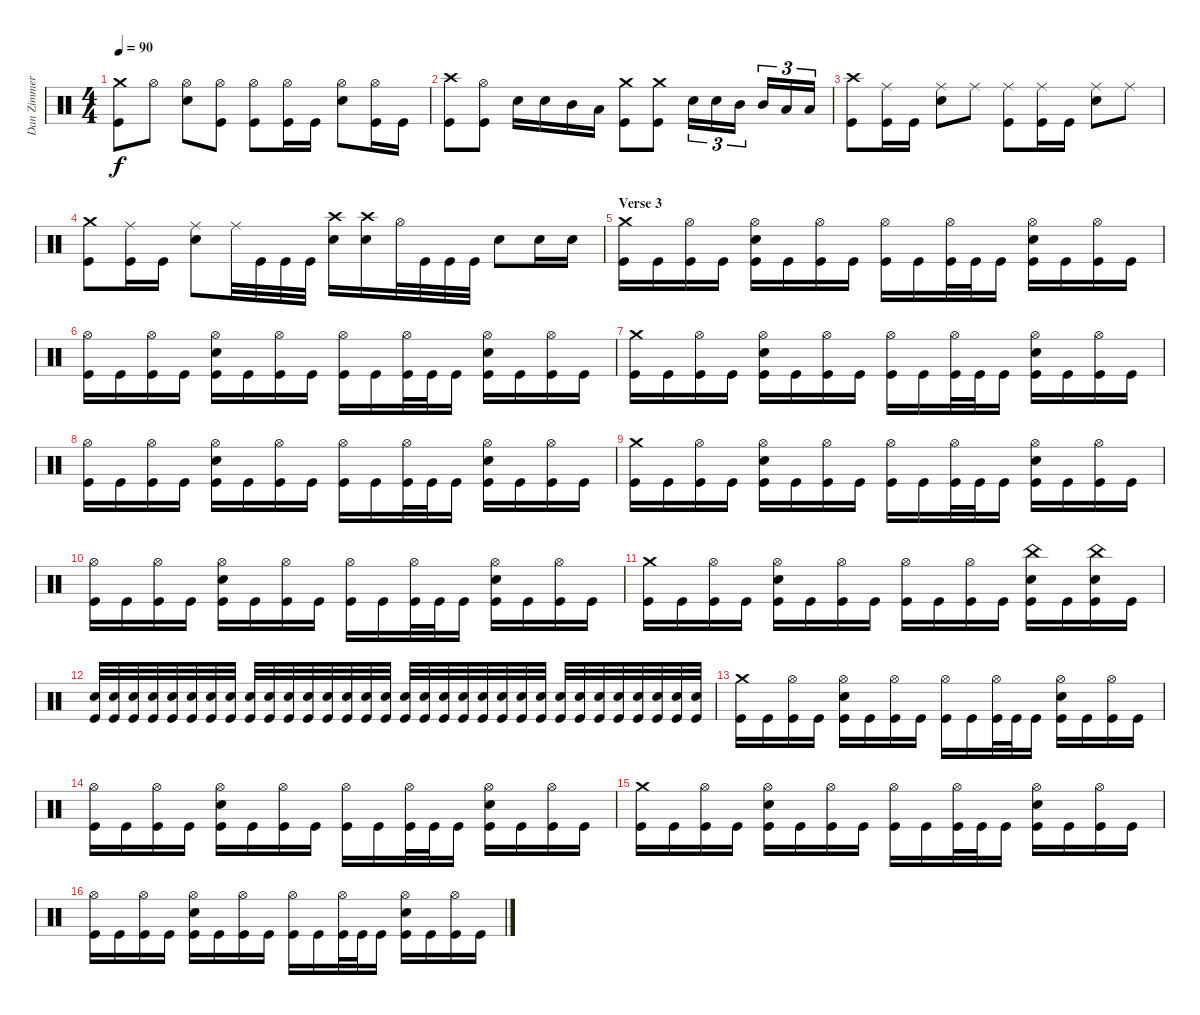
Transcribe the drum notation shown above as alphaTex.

\track ("Dan Zimmerman" "Dan Zimmer") {instrument percussion}
\staff {score}
\articulation defaults
\ts (4 4)
\tempo 90
\clef neutral
\ks c
("Crash medium (hit)" "Kick (hit)").8{dy f} "Hi-Hat (open)".8 ("Hi-Hat (open)" "Snare (hit) 2").8 ("Hi-Hat (open)" "Kick (hit)").8 ("Hi-Hat (open)" "Kick (hit)").8 ("Hi-Hat (open)" "Kick (hit)").16 "Kick (hit)".16 ("Hi-Hat (open)" "Snare (hit) 2").8 ("Hi-Hat (open)" "Kick (hit)").16 "Kick (hit)".16 |
("Crash high (hit)" "Kick (hit)").8 ("Hi-Hat (open)" "Kick (hit)").8 "Snare (hit) 2".16 "Snare (hit) 2".16 "Mid Tom (hit)".16 "Low Tom (hit)".16 ("Crash medium (hit)" "Kick (hit)").8 ("Crash medium (hit)" "Kick (hit)").8 "Snare (hit) 2".16{tu (3 2)} "Snare (hit) 2".16{tu (3 2)} "Mid Tom (hit)".16{tu (3 2)} "Mid Tom (hit)".16{tu (3 2)} "Low Tom (hit)".16{tu (3 2)} "Low Tom (hit)".16{tu (3 2)} |
("Crash high (hit)" "Kick (hit)").8 ("Ride (middle)" "Kick (hit)").16 "Kick (hit)".16 ("Ride (middle)" "Snare (hit) 2").8 "Ride (middle)".8 ("Ride (middle)" "Kick (hit)").8 ("Ride (middle)" "Kick (hit)").16 "Kick (hit)".16 ("Ride (middle)" "Snare (hit) 2").8 "Ride (middle)".8 |
("Crash medium (hit)" "Kick (hit)").8 ("Ride (middle)" "Kick (hit)").16 "Kick (hit)".16 ("Ride (middle)" "Snare (hit) 2").8 "Ride (middle)".32 "Kick (hit)".32 "Kick (hit)".32 "Kick (hit)".32 ("Crash high (hit)" "Snare (hit) 2").16 ("Crash high (hit)" "Snare (hit) 2").16 "Hi-Hat (open)".32 "Kick (hit)".32 "Kick (hit)".32 "Kick (hit)".32 "Snare (hit) 2".8 "Snare (hit) 2".16 "Snare (hit) 2".16 |
\section ("" "Verse 3")
("Crash medium (hit)" "Kick (hit)").16 "Kick (hit)".16 ("Hi-Hat (open)" "Kick (hit)").16 "Kick (hit)".16 ("Hi-Hat (open)" "Snare (hit) 2" "Kick (hit)").16 "Kick (hit)".16 ("Hi-Hat (open)" "Kick (hit)").16 "Kick (hit)".16 ("Hi-Hat (open)" "Kick (hit)").16 "Kick (hit)".16 ("Hi-Hat (open)" "Kick (hit)").32 "Kick (hit)".32 "Kick (hit)".16 ("Hi-Hat (open)" "Snare (hit) 2" "Kick (hit)").16 "Kick (hit)".16 ("Hi-Hat (open)" "Kick (hit)").16 "Kick (hit)".16 |
("Hi-Hat (open)" "Kick (hit)").16 "Kick (hit)".16 ("Hi-Hat (open)" "Kick (hit)").16 "Kick (hit)".16 ("Hi-Hat (open)" "Snare (hit) 2" "Kick (hit)").16 "Kick (hit)".16 ("Hi-Hat (open)" "Kick (hit)").16 "Kick (hit)".16 ("Hi-Hat (open)" "Kick (hit)").16 "Kick (hit)".16 ("Hi-Hat (open)" "Kick (hit)").32 "Kick (hit)".32 "Kick (hit)".16 ("Hi-Hat (open)" "Snare (hit) 2" "Kick (hit)").16 "Kick (hit)".16 ("Hi-Hat (open)" "Kick (hit)").16 "Kick (hit)".16 |
("Crash medium (hit)" "Kick (hit)").16 "Kick (hit)".16 ("Hi-Hat (open)" "Kick (hit)").16 "Kick (hit)".16 ("Hi-Hat (open)" "Snare (hit) 2" "Kick (hit)").16 "Kick (hit)".16 ("Hi-Hat (open)" "Kick (hit)").16 "Kick (hit)".16 ("Hi-Hat (open)" "Kick (hit)").16 "Kick (hit)".16 ("Hi-Hat (open)" "Kick (hit)").32 "Kick (hit)".32 "Kick (hit)".16 ("Hi-Hat (open)" "Snare (hit) 2" "Kick (hit)").16 "Kick (hit)".16 ("Hi-Hat (open)" "Kick (hit)").16 "Kick (hit)".16 |
("Hi-Hat (open)" "Kick (hit)").16 "Kick (hit)".16 ("Hi-Hat (open)" "Kick (hit)").16 "Kick (hit)".16 ("Hi-Hat (open)" "Snare (hit) 2" "Kick (hit)").16 "Kick (hit)".16 ("Hi-Hat (open)" "Kick (hit)").16 "Kick (hit)".16 ("Hi-Hat (open)" "Kick (hit)").16 "Kick (hit)".16 ("Hi-Hat (open)" "Kick (hit)").32 "Kick (hit)".32 "Kick (hit)".16 ("Hi-Hat (open)" "Snare (hit) 2" "Kick (hit)").16 "Kick (hit)".16 ("Hi-Hat (open)" "Kick (hit)").16 "Kick (hit)".16 |
("Crash medium (hit)" "Kick (hit)").16 "Kick (hit)".16 ("Hi-Hat (open)" "Kick (hit)").16 "Kick (hit)".16 ("Hi-Hat (open)" "Snare (hit) 2" "Kick (hit)").16 "Kick (hit)".16 ("Hi-Hat (open)" "Kick (hit)").16 "Kick (hit)".16 ("Hi-Hat (open)" "Kick (hit)").16 "Kick (hit)".16 ("Hi-Hat (open)" "Kick (hit)").32 "Kick (hit)".32 "Kick (hit)".16 ("Hi-Hat (open)" "Snare (hit) 2" "Kick (hit)").16 "Kick (hit)".16 ("Hi-Hat (open)" "Kick (hit)").16 "Kick (hit)".16 |
("Hi-Hat (open)" "Kick (hit)").16 "Kick (hit)".16 ("Hi-Hat (open)" "Kick (hit)").16 "Kick (hit)".16 ("Hi-Hat (open)" "Snare (hit) 2" "Kick (hit)").16 "Kick (hit)".16 ("Hi-Hat (open)" "Kick (hit)").16 "Kick (hit)".16 ("Hi-Hat (open)" "Kick (hit)").16 "Kick (hit)".16 ("Hi-Hat (open)" "Kick (hit)").32 "Kick (hit)".32 "Kick (hit)".16 ("Hi-Hat (open)" "Snare (hit) 2" "Kick (hit)").16 "Kick (hit)".16 ("Hi-Hat (open)" "Kick (hit)").16 "Kick (hit)".16 |
("Crash medium (hit)" "Kick (hit)").16 "Kick (hit)".16 ("Hi-Hat (open)" "Kick (hit)").16 "Kick (hit)".16 ("Hi-Hat (open)" "Snare (hit) 2" "Kick (hit)").16 "Kick (hit)".16 ("Hi-Hat (open)" "Kick (hit)").16 "Kick (hit)".16 ("Hi-Hat (open)" "Kick (hit)").16 "Kick (hit)".16 ("Hi-Hat (open)" "Kick (hit)").16 "Kick (hit)".16 ("China (hit)" "Snare (hit) 2" "Kick (hit)").16 "Kick (hit)".16 ("China (hit)" "Snare (hit) 2" "Kick (hit)").16 "Kick (hit)".16 |
("Snare (hit) 2" "Kick (hit)").32 ("Snare (hit) 2" "Kick (hit)").32 ("Snare (hit) 2" "Kick (hit)").32 ("Snare (hit) 2" "Kick (hit)").32 ("Snare (hit) 2" "Kick (hit)").32 ("Snare (hit) 2" "Kick (hit)").32 ("Snare (hit) 2" "Kick (hit)").32 ("Snare (hit) 2" "Kick (hit)").32 ("Snare (hit) 2" "Kick (hit)").32 ("Snare (hit) 2" "Kick (hit)").32 ("Snare (hit) 2" "Kick (hit)").32 ("Snare (hit) 2" "Kick (hit)").32 ("Snare (hit) 2" "Kick (hit)").32 ("Snare (hit) 2" "Kick (hit)").32 ("Snare (hit) 2" "Kick (hit)").32 ("Snare (hit) 2" "Kick (hit)").32 ("Snare (hit) 2" "Kick (hit)").32 ("Snare (hit) 2" "Kick (hit)").32 ("Snare (hit) 2" "Kick (hit)").32 ("Snare (hit) 2" "Kick (hit)").32 ("Snare (hit) 2" "Kick (hit)").32 ("Snare (hit) 2" "Kick (hit)").32 ("Snare (hit) 2" "Kick (hit)").32 ("Snare (hit) 2" "Kick (hit)").32 ("Snare (hit) 2" "Kick (hit)").32 ("Snare (hit) 2" "Kick (hit)").32 ("Snare (hit) 2" "Kick (hit)").32 ("Snare (hit) 2" "Kick (hit)").32 ("Snare (hit) 2" "Kick (hit)").32 ("Snare (hit) 2" "Kick (hit)").32 ("Snare (hit) 2" "Kick (hit)").32 ("Snare (hit) 2" "Kick (hit)").32 |
("Crash medium (hit)" "Kick (hit)").16 "Kick (hit)".16 ("Hi-Hat (open)" "Kick (hit)").16 "Kick (hit)".16 ("Hi-Hat (open)" "Snare (hit) 2" "Kick (hit)").16 "Kick (hit)".16 ("Hi-Hat (open)" "Kick (hit)").16 "Kick (hit)".16 ("Hi-Hat (open)" "Kick (hit)").16 "Kick (hit)".16 ("Hi-Hat (open)" "Kick (hit)").32 "Kick (hit)".32 "Kick (hit)".16 ("Hi-Hat (open)" "Snare (hit) 2" "Kick (hit)").16 "Kick (hit)".16 ("Hi-Hat (open)" "Kick (hit)").16 "Kick (hit)".16 |
("Hi-Hat (open)" "Kick (hit)").16 "Kick (hit)".16 ("Hi-Hat (open)" "Kick (hit)").16 "Kick (hit)".16 ("Hi-Hat (open)" "Snare (hit) 2" "Kick (hit)").16 "Kick (hit)".16 ("Hi-Hat (open)" "Kick (hit)").16 "Kick (hit)".16 ("Hi-Hat (open)" "Kick (hit)").16 "Kick (hit)".16 ("Hi-Hat (open)" "Kick (hit)").32 "Kick (hit)".32 "Kick (hit)".16 ("Hi-Hat (open)" "Snare (hit) 2" "Kick (hit)").16 "Kick (hit)".16 ("Hi-Hat (open)" "Kick (hit)").16 "Kick (hit)".16 |
("Crash medium (hit)" "Kick (hit)").16 "Kick (hit)".16 ("Hi-Hat (open)" "Kick (hit)").16 "Kick (hit)".16 ("Hi-Hat (open)" "Snare (hit) 2" "Kick (hit)").16 "Kick (hit)".16 ("Hi-Hat (open)" "Kick (hit)").16 "Kick (hit)".16 ("Hi-Hat (open)" "Kick (hit)").16 "Kick (hit)".16 ("Hi-Hat (open)" "Kick (hit)").32 "Kick (hit)".32 "Kick (hit)".16 ("Hi-Hat (open)" "Snare (hit) 2" "Kick (hit)").16 "Kick (hit)".16 ("Hi-Hat (open)" "Kick (hit)").16 "Kick (hit)".16 |
("Hi-Hat (open)" "Kick (hit)").16 "Kick (hit)".16 ("Hi-Hat (open)" "Kick (hit)").16 "Kick (hit)".16 ("Hi-Hat (open)" "Snare (hit) 2" "Kick (hit)").16 "Kick (hit)".16 ("Hi-Hat (open)" "Kick (hit)").16 "Kick (hit)".16 ("Hi-Hat (open)" "Kick (hit)").16 "Kick (hit)".16 ("Hi-Hat (open)" "Kick (hit)").32 "Kick (hit)".32 "Kick (hit)".16 ("Hi-Hat (open)" "Snare (hit) 2" "Kick (hit)").16 "Kick (hit)".16 ("Hi-Hat (open)" "Kick (hit)").16 "Kick (hit)".16
